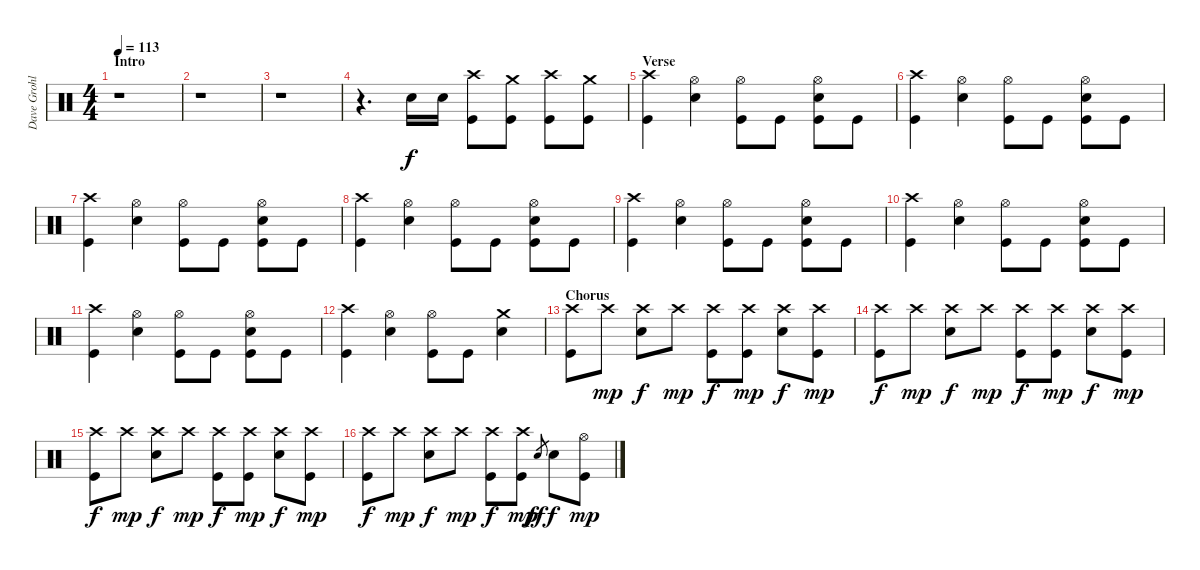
\track ("Dave Grohl" "Dave Grohl") {instrument percussion}
\staff {score}
\articulation defaults
\ts (4 4)
\section ("" "Intro")
\tempo 113
\clef neutral
\ks c
r.1{dy f} |
r.1 |
r.1 |
r.4{d} "Electric Snare (hit)".16 "Electric Snare (hit)".16 ("Crash high (hit)" "Kick (hit)").8 ("Crash medium (hit)" "Kick (hit)").8 ("Crash high (hit)" "Kick (hit)").8 ("Crash medium (hit)" "Kick (hit)").8 |
\section ("" "Verse")
("Crash high (hit)" "Kick (hit)").4 ("Hi-Hat (open)" "Electric Snare (hit)").4 ("Hi-Hat (open)" "Kick (hit)").8 "Kick (hit)".8 ("Hi-Hat (open)" "Electric Snare (hit)" "Kick (hit)").8 "Kick (hit)".8 |
("Crash high (hit)" "Kick (hit)").4 ("Hi-Hat (open)" "Electric Snare (hit)").4 ("Hi-Hat (open)" "Kick (hit)").8 "Kick (hit)".8 ("Hi-Hat (open)" "Electric Snare (hit)" "Kick (hit)").8 "Kick (hit)".8 |
("Crash high (hit)" "Kick (hit)").4 ("Hi-Hat (open)" "Electric Snare (hit)").4 ("Hi-Hat (open)" "Kick (hit)").8 "Kick (hit)".8 ("Hi-Hat (open)" "Electric Snare (hit)" "Kick (hit)").8 "Kick (hit)".8 |
("Crash high (hit)" "Kick (hit)").4 ("Hi-Hat (open)" "Electric Snare (hit)").4 ("Hi-Hat (open)" "Kick (hit)").8 "Kick (hit)".8 ("Hi-Hat (open)" "Electric Snare (hit)" "Kick (hit)").8 "Kick (hit)".8 |
("Crash high (hit)" "Kick (hit)").4 ("Hi-Hat (open)" "Electric Snare (hit)").4 ("Hi-Hat (open)" "Kick (hit)").8 "Kick (hit)".8 ("Hi-Hat (open)" "Electric Snare (hit)" "Kick (hit)").8 "Kick (hit)".8 |
("Crash high (hit)" "Kick (hit)").4 ("Hi-Hat (open)" "Electric Snare (hit)").4 ("Hi-Hat (open)" "Kick (hit)").8 "Kick (hit)".8 ("Hi-Hat (open)" "Electric Snare (hit)" "Kick (hit)").8 "Kick (hit)".8 |
("Crash high (hit)" "Kick (hit)").4 ("Hi-Hat (open)" "Electric Snare (hit)").4 ("Hi-Hat (open)" "Kick (hit)").8 "Kick (hit)".8 ("Hi-Hat (open)" "Electric Snare (hit)" "Kick (hit)").8 "Kick (hit)".8 |
("Crash high (hit)" "Kick (hit)").4 ("Hi-Hat (open)" "Electric Snare (hit)").4 ("Hi-Hat (open)" "Kick (hit)").8 "Kick (hit)".8 ("Crash medium (hit)" "Electric Snare (hit)").4 |
\section ("" "Chorus")
("Crash high (hit)" "Kick (hit)").8 "Crash high (hit)".8{dy mp} ("Crash high (hit)" "Electric Snare (hit)").8{dy f} "Crash high (hit)".8{dy mp} ("Crash high (hit)" "Kick (hit)").8{dy f} ("Crash high (hit)" "Kick (hit)").8{dy mp} ("Crash high (hit)" "Electric Snare (hit)").8{dy f} ("Crash high (hit)" "Kick (hit)").8{dy mp} |
("Crash high (hit)" "Kick (hit)").8{dy f} "Crash high (hit)".8{dy mp} ("Crash high (hit)" "Electric Snare (hit)").8{dy f} "Crash high (hit)".8{dy mp} ("Crash high (hit)" "Kick (hit)").8{dy f} ("Crash high (hit)" "Kick (hit)").8{dy mp} ("Crash high (hit)" "Electric Snare (hit)").8{dy f} ("Crash high (hit)" "Kick (hit)").8{dy mp} |
("Crash high (hit)" "Kick (hit)").8{dy f} "Crash high (hit)".8{dy mp} ("Crash high (hit)" "Electric Snare (hit)").8{dy f} "Crash high (hit)".8{dy mp} ("Crash high (hit)" "Kick (hit)").8{dy f} ("Crash high (hit)" "Kick (hit)").8{dy mp} ("Crash high (hit)" "Electric Snare (hit)").8{dy f} ("Crash high (hit)" "Kick (hit)").8{dy mp} |
("Crash high (hit)" "Kick (hit)").8{dy f} "Crash high (hit)".8{dy mp} ("Crash high (hit)" "Electric Snare (hit)").8{dy f} "Crash high (hit)".8{dy mp} ("Crash high (hit)" "Kick (hit)").8{dy f} ("Crash high (hit)" "Kick (hit)").8{dy mp} "Electric Snare (hit)".8{gr dy ff} "Electric Snare (hit)".8{dy f} ("Hi-Hat (open)" "Kick (hit)").8{dy mp}
